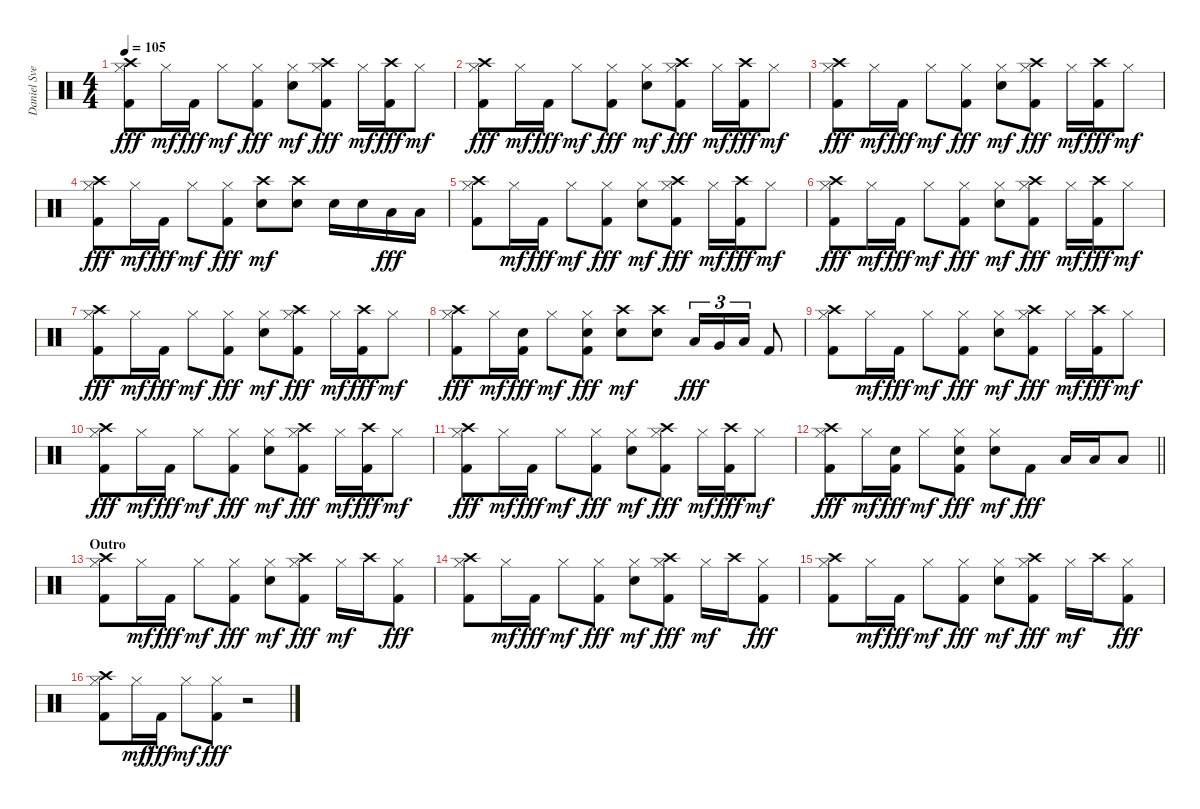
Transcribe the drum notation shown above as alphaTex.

\track ("Daniel Svensson" "Daniel Sve") {instrument percussion}
\staff {score}
\articulation defaults
\ts (4 4)
\tempo 105
\clef neutral
\ks c
("Crash high (hit)" "Hi-Hat (closed)" "Kick (hit) 2").8{dy fff} "Hi-Hat (closed)".16{dy mf} "Kick (hit) 2".16{dy fff} "Hi-Hat (closed)".8{dy mf} ("Hi-Hat (closed)" "Kick (hit) 2").8{dy fff} ("Hi-Hat (closed)" "Electric Snare (hit)").8{dy mf} ("Crash high (hit)" "Hi-Hat (closed)" "Kick (hit) 2").8{dy fff} "Hi-Hat (closed)".16{dy mf} ("Crash high (hit)" "Kick (hit) 2").16{dy fff} "Hi-Hat (closed)".8{dy mf} |
("Crash high (hit)" "Hi-Hat (closed)" "Kick (hit) 2").8{dy fff} "Hi-Hat (closed)".16{dy mf} "Kick (hit) 2".16{dy fff} "Hi-Hat (closed)".8{dy mf} ("Hi-Hat (closed)" "Kick (hit) 2").8{dy fff} ("Hi-Hat (closed)" "Electric Snare (hit)").8{dy mf} ("Crash high (hit)" "Hi-Hat (closed)" "Kick (hit) 2").8{dy fff} "Hi-Hat (closed)".16{dy mf} ("Crash high (hit)" "Kick (hit) 2").16{dy fff} "Hi-Hat (closed)".8{dy mf} |
("Crash high (hit)" "Hi-Hat (closed)" "Kick (hit) 2").8{dy fff} "Hi-Hat (closed)".16{dy mf} "Kick (hit) 2".16{dy fff} "Hi-Hat (closed)".8{dy mf} ("Hi-Hat (closed)" "Kick (hit) 2").8{dy fff} ("Hi-Hat (closed)" "Electric Snare (hit)").8{dy mf} ("Crash high (hit)" "Hi-Hat (closed)" "Kick (hit) 2").8{dy fff} "Hi-Hat (closed)".16{dy mf} ("Crash high (hit)" "Kick (hit) 2").16{dy fff} "Hi-Hat (closed)".8{dy mf} |
("Crash high (hit)" "Hi-Hat (closed)" "Kick (hit) 2").8{dy fff} "Hi-Hat (closed)".16{dy mf} "Kick (hit) 2".16{dy fff} "Hi-Hat (closed)".8{dy mf} ("Hi-Hat (closed)" "Kick (hit) 2").8{dy fff} ("Crash high (hit)" "Electric Snare (hit)").8{dy mf} ("Crash high (hit)" "Electric Snare (hit)").8 "Electric Snare (hit)".16 "Electric Snare (hit)".16 "Low Floor Tom (hit)".16{dy fff} "Low Floor Tom (hit)".16 |
("Crash high (hit)" "Hi-Hat (closed)" "Kick (hit) 2").8 "Hi-Hat (closed)".16{dy mf} "Kick (hit) 2".16{dy fff} "Hi-Hat (closed)".8{dy mf} ("Hi-Hat (closed)" "Kick (hit) 2").8{dy fff} ("Hi-Hat (closed)" "Electric Snare (hit)").8{dy mf} ("Crash high (hit)" "Hi-Hat (closed)" "Kick (hit) 2").8{dy fff} "Hi-Hat (closed)".16{dy mf} ("Crash high (hit)" "Kick (hit) 2").16{dy fff} "Hi-Hat (closed)".8{dy mf} |
("Crash high (hit)" "Hi-Hat (closed)" "Kick (hit) 2").8{dy fff} "Hi-Hat (closed)".16{dy mf} "Kick (hit) 2".16{dy fff} "Hi-Hat (closed)".8{dy mf} ("Hi-Hat (closed)" "Kick (hit) 2").8{dy fff} ("Hi-Hat (closed)" "Electric Snare (hit)").8{dy mf} ("Crash high (hit)" "Hi-Hat (closed)" "Kick (hit) 2").8{dy fff} "Hi-Hat (closed)".16{dy mf} ("Crash high (hit)" "Kick (hit) 2").16{dy fff} "Hi-Hat (closed)".8{dy mf} |
("Crash high (hit)" "Hi-Hat (closed)" "Kick (hit) 2").8{dy fff} "Hi-Hat (closed)".16{dy mf} "Kick (hit) 2".16{dy fff} "Hi-Hat (closed)".8{dy mf} ("Hi-Hat (closed)" "Kick (hit) 2").8{dy fff} ("Hi-Hat (closed)" "Electric Snare (hit)").8{dy mf} ("Crash high (hit)" "Hi-Hat (closed)" "Kick (hit) 2").8{dy fff} "Hi-Hat (closed)".16{dy mf} ("Crash high (hit)" "Kick (hit) 2").16{dy fff} "Hi-Hat (closed)".8{dy mf} |
("Crash high (hit)" "Hi-Hat (closed)" "Kick (hit) 2").8{dy fff} "Hi-Hat (closed)".16{dy mf} ("Electric Snare (hit)" "Kick (hit) 2").16{dy fff} "Hi-Hat (closed)".8{dy mf} ("Hi-Hat (closed)" "Electric Snare (hit)" "Kick (hit) 2").8{dy fff} ("Crash high (hit)" "Electric Snare (hit)").8{dy mf} ("Crash high (hit)" "Electric Snare (hit)").8 "Low Tom (hit)".16{tu (3 2) dy fff} "Very Low Tom (hit)".16{tu (3 2)} "Low Floor Tom (hit)".16{tu (3 2)} "Kick (hit) 2".8 |
("Crash high (hit)" "Hi-Hat (closed)" "Kick (hit) 2").8 "Hi-Hat (closed)".16{dy mf} "Kick (hit) 2".16{dy fff} "Hi-Hat (closed)".8{dy mf} ("Hi-Hat (closed)" "Kick (hit) 2").8{dy fff} ("Hi-Hat (closed)" "Electric Snare (hit)").8{dy mf} ("Crash high (hit)" "Hi-Hat (closed)" "Kick (hit) 2").8{dy fff} "Hi-Hat (closed)".16{dy mf} ("Crash high (hit)" "Kick (hit) 2").16{dy fff} "Hi-Hat (closed)".8{dy mf} |
("Crash high (hit)" "Hi-Hat (closed)" "Kick (hit) 2").8{dy fff} "Hi-Hat (closed)".16{dy mf} "Kick (hit) 2".16{dy fff} "Hi-Hat (closed)".8{dy mf} ("Hi-Hat (closed)" "Kick (hit) 2").8{dy fff} ("Hi-Hat (closed)" "Electric Snare (hit)").8{dy mf} ("Crash high (hit)" "Hi-Hat (closed)" "Kick (hit) 2").8{dy fff} "Hi-Hat (closed)".16{dy mf} ("Crash high (hit)" "Kick (hit) 2").16{dy fff} "Hi-Hat (closed)".8{dy mf} |
("Crash high (hit)" "Hi-Hat (closed)" "Kick (hit) 2").8{dy fff} "Hi-Hat (closed)".16{dy mf} "Kick (hit) 2".16{dy fff} "Hi-Hat (closed)".8{dy mf} ("Hi-Hat (closed)" "Kick (hit) 2").8{dy fff} ("Hi-Hat (closed)" "Electric Snare (hit)").8{dy mf} ("Crash high (hit)" "Hi-Hat (closed)" "Kick (hit) 2").8{dy fff} "Hi-Hat (closed)".16{dy mf} ("Crash high (hit)" "Kick (hit) 2").16{dy fff} "Hi-Hat (closed)".8{dy mf} |
\barLineRight lightlight
("Crash high (hit)" "Hi-Hat (closed)" "Kick (hit) 2").8{dy fff} "Hi-Hat (closed)".16{dy mf} ("Electric Snare (hit)" "Kick (hit) 2").16{dy fff} "Hi-Hat (closed)".8{dy mf} ("Hi-Hat (closed)" "Electric Snare (hit)" "Kick (hit) 2").8{dy fff} ("Hi-Hat (closed)" "Electric Snare (hit)").8{dy mf} "Kick (hit) 2".8{dy fff} "Low Floor Tom (hit)".16 "Low Floor Tom (hit)".16 "Low Floor Tom (hit)".8 |
\section ("" "Outro")
("Crash high (hit)" "Hi-Hat (closed)" "Kick (hit) 2").8 "Hi-Hat (closed)".16{dy mf} "Kick (hit) 2".16{dy fff} "Hi-Hat (closed)".8{dy mf} ("Hi-Hat (closed)" "Kick (hit) 2").8{dy fff} ("Hi-Hat (closed)" "Electric Snare (hit)").8{dy mf} ("Crash high (hit)" "Hi-Hat (closed)" "Kick (hit) 2").8{dy fff} "Hi-Hat (closed)".16{dy mf} "Crash high (hit)".16 ("Hi-Hat (closed)" "Kick (hit) 2").8{dy fff} |
("Crash high (hit)" "Hi-Hat (closed)" "Kick (hit) 2").8 "Hi-Hat (closed)".16{dy mf} "Kick (hit) 2".16{dy fff} "Hi-Hat (closed)".8{dy mf} ("Hi-Hat (closed)" "Kick (hit) 2").8{dy fff} ("Hi-Hat (closed)" "Electric Snare (hit)").8{dy mf} ("Crash high (hit)" "Hi-Hat (closed)" "Kick (hit) 2").8{dy fff} "Hi-Hat (closed)".16{dy mf} "Crash high (hit)".16 ("Hi-Hat (closed)" "Kick (hit) 2").8{dy fff} |
("Crash high (hit)" "Hi-Hat (closed)" "Kick (hit) 2").8 "Hi-Hat (closed)".16{dy mf} "Kick (hit) 2".16{dy fff} "Hi-Hat (closed)".8{dy mf} ("Hi-Hat (closed)" "Kick (hit) 2").8{dy fff} ("Hi-Hat (closed)" "Electric Snare (hit)").8{dy mf} ("Crash high (hit)" "Hi-Hat (closed)" "Kick (hit) 2").8{dy fff} "Hi-Hat (closed)".16{dy mf} "Crash high (hit)".16 ("Hi-Hat (closed)" "Kick (hit) 2").8{dy fff} |
("Crash high (hit)" "Hi-Hat (closed)" "Kick (hit) 2").8 "Hi-Hat (closed)".16{dy mf} "Kick (hit) 2".16{dy fff} "Hi-Hat (closed)".8{dy mf} ("Hi-Hat (closed)" "Kick (hit) 2").8{dy fff} r.2
